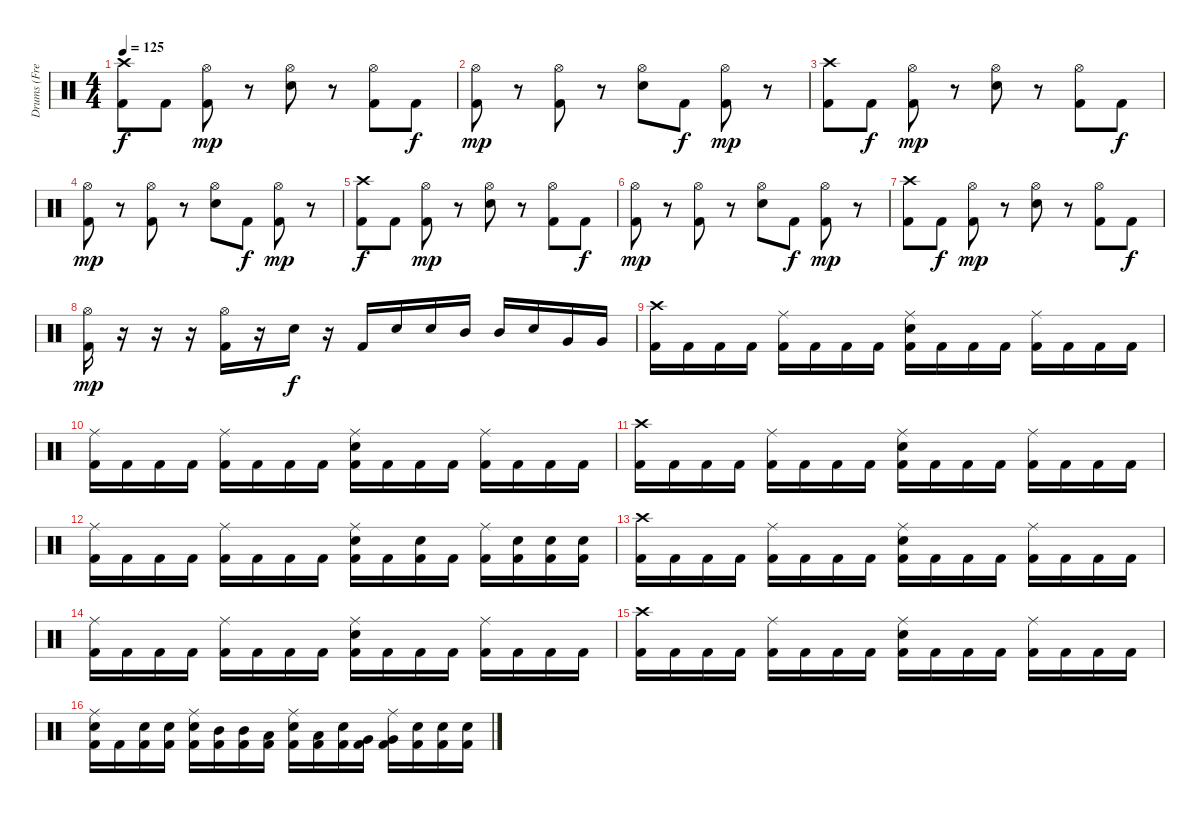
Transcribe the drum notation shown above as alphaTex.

\track ("Drums (Fredrik Andersson)" "Drums (Fre") {instrument percussion}
\staff {score}
\articulation defaults
\ts (4 4)
\tempo 125
\clef neutral
\ks c
("Crash high (hit)" "Kick (hit) 2").8{dy f} "Kick (hit) 2".8 ("Hi-Hat (open)" "Kick (hit) 2").8{dy mp} r.8 ("Hi-Hat (open)" "Snare (hit) 2").8 r.8 ("Hi-Hat (open)" "Kick (hit) 2").8 "Kick (hit) 2".8{dy f} |
("Hi-Hat (open)" "Kick (hit) 2").8{dy mp} r.8 ("Hi-Hat (open)" "Kick (hit) 2").8 r.8 ("Hi-Hat (open)" "Snare (hit) 2").8 "Kick (hit) 2".8{dy f} ("Hi-Hat (open)" "Kick (hit) 2").8{dy mp} r.8 |
("Crash high (hit)" "Kick (hit) 2").8 "Kick (hit) 2".8{dy f} ("Hi-Hat (open)" "Kick (hit) 2").8{dy mp} r.8 ("Hi-Hat (open)" "Snare (hit) 2").8 r.8 ("Hi-Hat (open)" "Kick (hit) 2").8 "Kick (hit) 2".8{dy f} |
("Hi-Hat (open)" "Kick (hit) 2").8{dy mp} r.8 ("Hi-Hat (open)" "Kick (hit) 2").8 r.8 ("Hi-Hat (open)" "Snare (hit) 2").8 "Kick (hit) 2".8{dy f} ("Hi-Hat (open)" "Kick (hit) 2").8{dy mp} r.8 |
("Crash high (hit)" "Kick (hit) 2").8{dy f} "Kick (hit) 2".8 ("Hi-Hat (open)" "Kick (hit) 2").8{dy mp} r.8 ("Hi-Hat (open)" "Snare (hit) 2").8 r.8 ("Hi-Hat (open)" "Kick (hit) 2").8 "Kick (hit) 2".8{dy f} |
("Hi-Hat (open)" "Kick (hit) 2").8{dy mp} r.8 ("Hi-Hat (open)" "Kick (hit) 2").8 r.8 ("Hi-Hat (open)" "Snare (hit) 2").8 "Kick (hit) 2".8{dy f} ("Hi-Hat (open)" "Kick (hit) 2").8{dy mp} r.8 |
("Crash high (hit)" "Kick (hit) 2").8 "Kick (hit) 2".8{dy f} ("Hi-Hat (open)" "Kick (hit) 2").8{dy mp} r.8 ("Hi-Hat (open)" "Snare (hit) 2").8 r.8 ("Hi-Hat (open)" "Kick (hit) 2").8 "Kick (hit) 2".8{dy f} |
("Hi-Hat (open)" "Kick (hit) 2").16{dy mp} r.16 r.16 r.16 ("Hi-Hat (open)" "Kick (hit) 2").16 r.16 "Snare (hit) 2".16{dy f} r.16 "Kick (hit) 2".16 "Snare (hit) 2".16 "Snare (hit) 2".16 "Mid Tom (hit)".16 "Mid Tom (hit)".16 "Snare (hit) 2".16 "Very Low Tom (hit)".16 "Very Low Tom (hit)".16 |
("Crash high (hit)" "Kick (hit) 2").16 "Kick (hit) 2".16 "Kick (hit) 2".16 "Kick (hit) 2".16 ("Ride (middle)" "Kick (hit) 2").16 "Kick (hit) 2".16 "Kick (hit) 2".16 "Kick (hit) 2".16 ("Ride (middle)" "Snare (hit) 2" "Kick (hit) 2").16 "Kick (hit) 2".16 "Kick (hit) 2".16 "Kick (hit) 2".16 ("Ride (middle)" "Kick (hit) 2").16 "Kick (hit) 2".16 "Kick (hit) 2".16 "Kick (hit) 2".16 |
("Ride (middle)" "Kick (hit) 2").16 "Kick (hit) 2".16 "Kick (hit) 2".16 "Kick (hit) 2".16 ("Ride (middle)" "Kick (hit) 2").16 "Kick (hit) 2".16 "Kick (hit) 2".16 "Kick (hit) 2".16 ("Ride (middle)" "Snare (hit) 2" "Kick (hit) 2").16 "Kick (hit) 2".16 "Kick (hit) 2".16 "Kick (hit) 2".16 ("Ride (middle)" "Kick (hit) 2").16 "Kick (hit) 2".16 "Kick (hit) 2".16 "Kick (hit) 2".16 |
("Crash high (hit)" "Kick (hit) 2").16 "Kick (hit) 2".16 "Kick (hit) 2".16 "Kick (hit) 2".16 ("Ride (middle)" "Kick (hit) 2").16 "Kick (hit) 2".16 "Kick (hit) 2".16 "Kick (hit) 2".16 ("Ride (middle)" "Snare (hit) 2" "Kick (hit) 2").16 "Kick (hit) 2".16 "Kick (hit) 2".16 "Kick (hit) 2".16 ("Ride (middle)" "Kick (hit) 2").16 "Kick (hit) 2".16 "Kick (hit) 2".16 "Kick (hit) 2".16 |
("Ride (middle)" "Kick (hit) 2").16 "Kick (hit) 2".16 "Kick (hit) 2".16 "Kick (hit) 2".16 ("Ride (middle)" "Kick (hit) 2").16 "Kick (hit) 2".16 "Kick (hit) 2".16 "Kick (hit) 2".16 ("Ride (middle)" "Snare (hit) 2" "Kick (hit) 2").16 "Kick (hit) 2".16 ("Snare (hit) 2" "Kick (hit) 2").16 "Kick (hit) 2".16 ("Ride (middle)" "Kick (hit) 2").16 ("Snare (hit) 2" "Kick (hit) 2").16 ("Snare (hit) 2" "Kick (hit) 2").16 ("Snare (hit) 2" "Kick (hit) 2").16 |
("Crash high (hit)" "Kick (hit) 2").16 "Kick (hit) 2".16 "Kick (hit) 2".16 "Kick (hit) 2".16 ("Ride (middle)" "Kick (hit) 2").16 "Kick (hit) 2".16 "Kick (hit) 2".16 "Kick (hit) 2".16 ("Ride (middle)" "Snare (hit) 2" "Kick (hit) 2").16 "Kick (hit) 2".16 "Kick (hit) 2".16 "Kick (hit) 2".16 ("Ride (middle)" "Kick (hit) 2").16 "Kick (hit) 2".16 "Kick (hit) 2".16 "Kick (hit) 2".16 |
("Ride (middle)" "Kick (hit) 2").16 "Kick (hit) 2".16 "Kick (hit) 2".16 "Kick (hit) 2".16 ("Ride (middle)" "Kick (hit) 2").16 "Kick (hit) 2".16 "Kick (hit) 2".16 "Kick (hit) 2".16 ("Ride (middle)" "Snare (hit) 2" "Kick (hit) 2").16 "Kick (hit) 2".16 "Kick (hit) 2".16 "Kick (hit) 2".16 ("Ride (middle)" "Kick (hit) 2").16 "Kick (hit) 2".16 "Kick (hit) 2".16 "Kick (hit) 2".16 |
("Crash high (hit)" "Kick (hit) 2").16 "Kick (hit) 2".16 "Kick (hit) 2".16 "Kick (hit) 2".16 ("Ride (middle)" "Kick (hit) 2").16 "Kick (hit) 2".16 "Kick (hit) 2".16 "Kick (hit) 2".16 ("Ride (middle)" "Snare (hit) 2" "Kick (hit) 2").16 "Kick (hit) 2".16 "Kick (hit) 2".16 "Kick (hit) 2".16 ("Ride (middle)" "Kick (hit) 2").16 "Kick (hit) 2".16 "Kick (hit) 2".16 "Kick (hit) 2".16 |
("Ride (middle)" "Snare (hit) 2" "Kick (hit) 2").16 "Kick (hit) 2".16 ("Snare (hit) 2" "Kick (hit) 2").16 ("Snare (hit) 2" "Kick (hit) 2").16 ("Ride (middle)" "Snare (hit) 2" "Kick (hit) 2").16 ("Mid Tom (hit)" "Kick (hit) 2").16 ("Mid Tom (hit)" "Kick (hit) 2").16 ("Low Tom (hit)" "Kick (hit) 2").16 ("Ride (middle)" "Snare (hit) 2" "Kick (hit) 2").16 ("Low Tom (hit)" "Kick (hit) 2").16 ("Snare (hit) 2" "Kick (hit) 2").16 ("Very Low Tom (hit)" "Kick (hit) 2").16 ("Ride (middle)" "Very Low Tom (hit)" "Kick (hit) 2").16 ("Snare (hit) 2" "Kick (hit) 2").16 ("Snare (hit) 2" "Kick (hit) 2").16 ("Snare (hit) 2" "Kick (hit) 2").16
